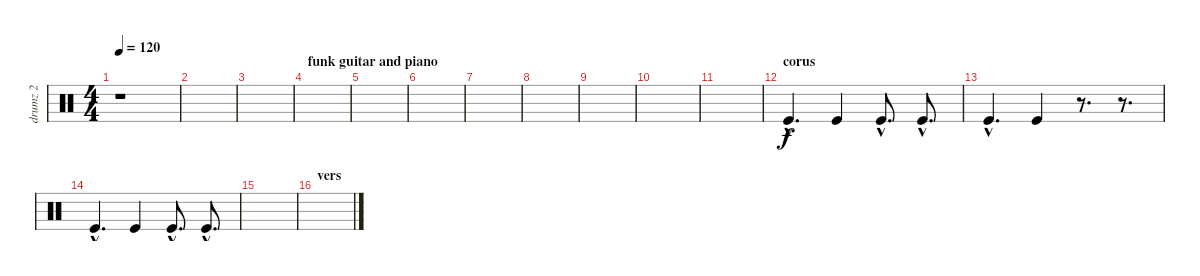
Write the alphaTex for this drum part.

\track ("drumz 2" "drumz 2") {instrument percussion}
\staff {score}
\articulation defaults
\ts (4 4)
\tempo 120
\clef neutral
\ks c
r.1{dy f} |
|
|
\section ("" "funk guitar and piano")
|
|
|
|
|
|
|
|
\section ("" "corus")
"Kick (hit)"{hac}.4{d} "Kick (hit)".4 "Kick (hit)"{hac}.8{d} "Kick (hit)"{hac}.8{d} |
"Kick (hit)"{hac}.4{d} "Kick (hit)".4 r.8{d} r.8{d} |
"Kick (hit)"{hac}.4{d} "Kick (hit)".4 "Kick (hit)"{hac}.8{d} "Kick (hit)"{hac}.8{d} |
|
\section ("" "vers")
